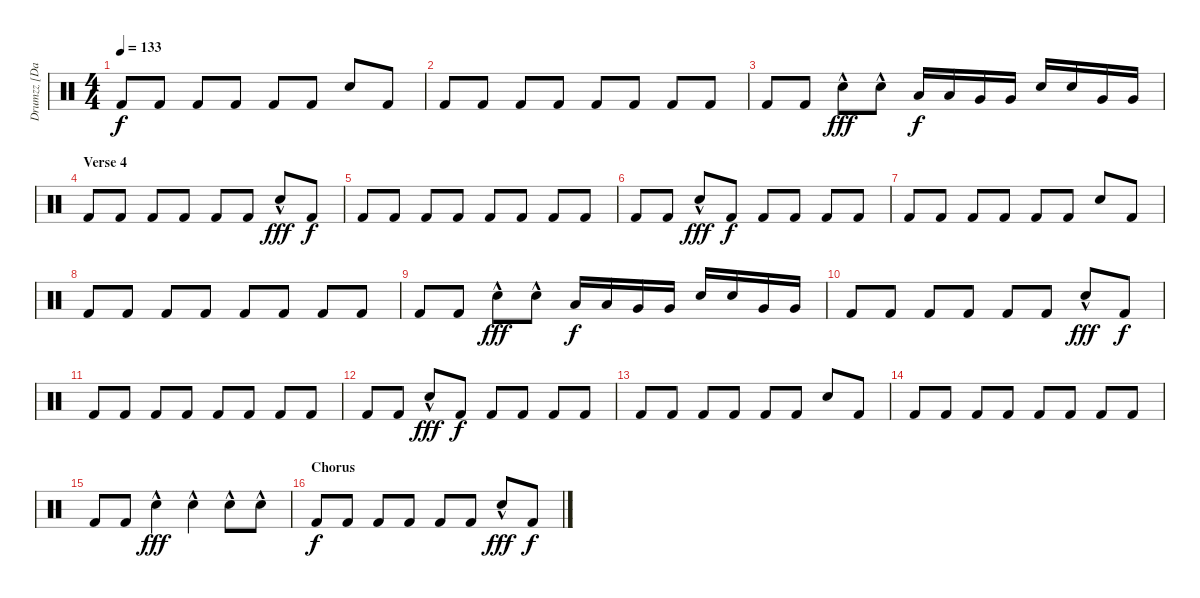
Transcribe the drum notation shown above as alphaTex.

\track ("Drumzz [Dave Grohl]" "Drumzz [Da") {instrument percussion}
\staff {score}
\articulation defaults
\ts (4 4)
\tempo 133
\clef neutral
\ks c "Kick (hit) 2".8{dy f} "Kick (hit) 2".8 "Kick (hit) 2".8 "Kick (hit) 2".8 "Kick (hit) 2".8 "Kick (hit) 2".8 "Snare (hit) 2".8 "Kick (hit) 2".8
|
"Kick (hit) 2".8 "Kick (hit) 2".8 "Kick (hit) 2".8 "Kick (hit) 2".8 "Kick (hit) 2".8 "Kick (hit) 2".8 "Kick (hit) 2".8 "Kick (hit) 2".8 |
"Kick (hit) 2".8 "Kick (hit) 2".8 "Snare (hit) 2"{hac}.8{dy fff} "Snare (hit) 2"{hac}.8 "Low Tom (hit)".16{dy f} "Low Tom (hit)".16 "Very Low Tom (hit)".16 "Very Low Tom (hit)".16 "Snare (hit) 2".16 "Snare (hit) 2".16 "Very Low Tom (hit)".16 "Very Low Tom (hit)".16 |
\section ("" "Verse 4")
"Kick (hit) 2".8 "Kick (hit) 2".8 "Kick (hit) 2".8 "Kick (hit) 2".8 "Kick (hit) 2".8 "Kick (hit) 2".8 "Snare (hit) 2"{hac}.8{dy fff} "Kick (hit) 2".8{dy f} |
"Kick (hit) 2".8 "Kick (hit) 2".8 "Kick (hit) 2".8 "Kick (hit) 2".8 "Kick (hit) 2".8 "Kick (hit) 2".8 "Kick (hit) 2".8 "Kick (hit) 2".8 |
"Kick (hit) 2".8 "Kick (hit) 2".8 "Snare (hit) 2"{hac}.8{dy fff} "Kick (hit) 2".8{dy f} "Kick (hit) 2".8 "Kick (hit) 2".8 "Kick (hit) 2".8 "Kick (hit) 2".8 |
"Kick (hit) 2".8 "Kick (hit) 2".8 "Kick (hit) 2".8 "Kick (hit) 2".8 "Kick (hit) 2".8 "Kick (hit) 2".8 "Snare (hit) 2".8 "Kick (hit) 2".8 |
"Kick (hit) 2".8 "Kick (hit) 2".8 "Kick (hit) 2".8 "Kick (hit) 2".8 "Kick (hit) 2".8 "Kick (hit) 2".8 "Kick (hit) 2".8 "Kick (hit) 2".8 |
"Kick (hit) 2".8 "Kick (hit) 2".8 "Snare (hit) 2"{hac}.8{dy fff} "Snare (hit) 2"{hac}.8 "Low Tom (hit)".16{dy f} "Low Tom (hit)".16 "Very Low Tom (hit)".16 "Very Low Tom (hit)".16 "Snare (hit) 2".16 "Snare (hit) 2".16 "Very Low Tom (hit)".16 "Very Low Tom (hit)".16 |
"Kick (hit) 2".8 "Kick (hit) 2".8 "Kick (hit) 2".8 "Kick (hit) 2".8 "Kick (hit) 2".8 "Kick (hit) 2".8 "Snare (hit) 2"{hac}.8{dy fff} "Kick (hit) 2".8{dy f} |
"Kick (hit) 2".8 "Kick (hit) 2".8 "Kick (hit) 2".8 "Kick (hit) 2".8 "Kick (hit) 2".8 "Kick (hit) 2".8 "Kick (hit) 2".8 "Kick (hit) 2".8 |
"Kick (hit) 2".8 "Kick (hit) 2".8 "Snare (hit) 2"{hac}.8{dy fff} "Kick (hit) 2".8{dy f} "Kick (hit) 2".8 "Kick (hit) 2".8 "Kick (hit) 2".8 "Kick (hit) 2".8 |
"Kick (hit) 2".8 "Kick (hit) 2".8 "Kick (hit) 2".8 "Kick (hit) 2".8 "Kick (hit) 2".8 "Kick (hit) 2".8 "Snare (hit) 2".8 "Kick (hit) 2".8 |
"Kick (hit) 2".8 "Kick (hit) 2".8 "Kick (hit) 2".8 "Kick (hit) 2".8 "Kick (hit) 2".8 "Kick (hit) 2".8 "Kick (hit) 2".8 "Kick (hit) 2".8 |
"Kick (hit) 2".8 "Kick (hit) 2".8 "Snare (hit) 2"{hac}.4{dy fff} "Snare (hit) 2"{hac}.4 "Snare (hit) 2"{hac}.8 "Snare (hit) 2"{hac}.8 |
\section ("" "Chorus")
"Kick (hit) 2".8{dy f} "Kick (hit) 2".8 "Kick (hit) 2".8 "Kick (hit) 2".8 "Kick (hit) 2".8 "Kick (hit) 2".8 "Snare (hit) 2"{hac}.8{dy fff} "Kick (hit) 2".8{dy f}
